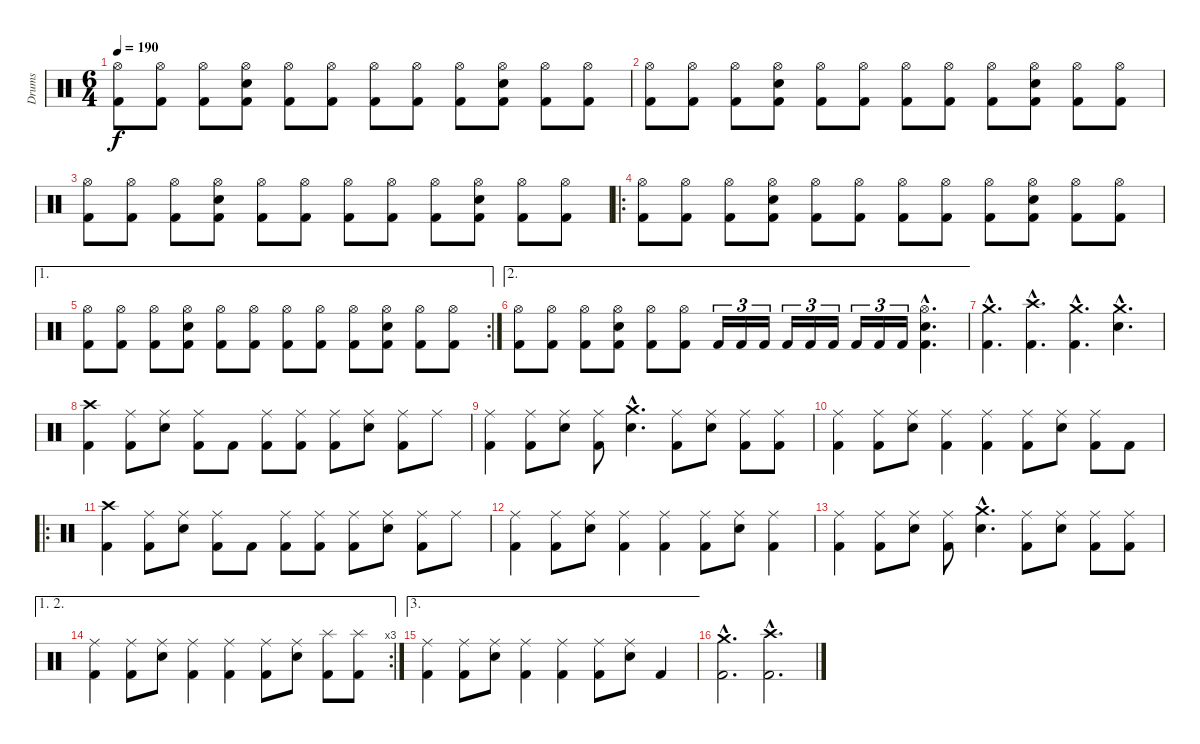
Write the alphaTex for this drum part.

\track ("Drums" "Drums") {instrument percussion}
\staff {score}
\articulation defaults
\ts (6 4)
\tempo 190
\clef neutral
\ks c
("Hi-Hat (open)" "Kick (hit) 2").8{dy f} ("Hi-Hat (open)" "Kick (hit) 2").8 ("Hi-Hat (open)" "Kick (hit) 2").8 ("Hi-Hat (open)" "Electric Snare (hit)" "Kick (hit) 2").8 ("Hi-Hat (open)" "Kick (hit) 2").8 ("Hi-Hat (open)" "Kick (hit) 2").8 ("Hi-Hat (open)" "Kick (hit) 2").8 ("Hi-Hat (open)" "Kick (hit) 2").8 ("Hi-Hat (open)" "Kick (hit) 2").8 ("Hi-Hat (open)" "Electric Snare (hit)" "Kick (hit) 2").8 ("Hi-Hat (open)" "Kick (hit) 2").8 ("Hi-Hat (open)" "Kick (hit) 2").8 |
("Hi-Hat (open)" "Kick (hit) 2").8 ("Hi-Hat (open)" "Kick (hit) 2").8 ("Hi-Hat (open)" "Kick (hit) 2").8 ("Hi-Hat (open)" "Electric Snare (hit)" "Kick (hit) 2").8 ("Hi-Hat (open)" "Kick (hit) 2").8 ("Hi-Hat (open)" "Kick (hit) 2").8 ("Hi-Hat (open)" "Kick (hit) 2").8 ("Hi-Hat (open)" "Kick (hit) 2").8 ("Hi-Hat (open)" "Kick (hit) 2").8 ("Hi-Hat (open)" "Electric Snare (hit)" "Kick (hit) 2").8 ("Hi-Hat (open)" "Kick (hit) 2").8 ("Hi-Hat (open)" "Kick (hit) 2").8 |
("Hi-Hat (open)" "Kick (hit) 2").8 ("Hi-Hat (open)" "Kick (hit) 2").8 ("Hi-Hat (open)" "Kick (hit) 2").8 ("Hi-Hat (open)" "Electric Snare (hit)" "Kick (hit) 2").8 ("Hi-Hat (open)" "Kick (hit) 2").8 ("Hi-Hat (open)" "Kick (hit) 2").8 ("Hi-Hat (open)" "Kick (hit) 2").8 ("Hi-Hat (open)" "Kick (hit) 2").8 ("Hi-Hat (open)" "Kick (hit) 2").8 ("Hi-Hat (open)" "Electric Snare (hit)" "Kick (hit) 2").8 ("Hi-Hat (open)" "Kick (hit) 2").8 ("Hi-Hat (open)" "Kick (hit) 2").8 |
\ro
("Hi-Hat (open)" "Kick (hit) 2").8 ("Hi-Hat (open)" "Kick (hit) 2").8 ("Hi-Hat (open)" "Kick (hit) 2").8 ("Hi-Hat (open)" "Electric Snare (hit)" "Kick (hit) 2").8 ("Hi-Hat (open)" "Kick (hit) 2").8 ("Hi-Hat (open)" "Kick (hit) 2").8 ("Hi-Hat (open)" "Kick (hit) 2").8 ("Hi-Hat (open)" "Kick (hit) 2").8 ("Hi-Hat (open)" "Kick (hit) 2").8 ("Hi-Hat (open)" "Electric Snare (hit)" "Kick (hit) 2").8 ("Hi-Hat (open)" "Kick (hit) 2").8 ("Hi-Hat (open)" "Kick (hit) 2").8 |
\ae 1
\rc 2
("Hi-Hat (open)" "Kick (hit) 2").8 ("Hi-Hat (open)" "Kick (hit) 2").8 ("Hi-Hat (open)" "Kick (hit) 2").8 ("Hi-Hat (open)" "Electric Snare (hit)" "Kick (hit) 2").8 ("Hi-Hat (open)" "Kick (hit) 2").8 ("Hi-Hat (open)" "Kick (hit) 2").8 ("Hi-Hat (open)" "Kick (hit) 2").8 ("Hi-Hat (open)" "Kick (hit) 2").8 ("Hi-Hat (open)" "Kick (hit) 2").8 ("Hi-Hat (open)" "Electric Snare (hit)" "Kick (hit) 2").8 ("Hi-Hat (open)" "Kick (hit) 2").8 ("Hi-Hat (open)" "Kick (hit) 2").8 |
\ae 2
("Hi-Hat (open)" "Kick (hit) 2").8 ("Hi-Hat (open)" "Kick (hit) 2").8 ("Hi-Hat (open)" "Kick (hit) 2").8 ("Hi-Hat (open)" "Electric Snare (hit)" "Kick (hit) 2").8 ("Hi-Hat (open)" "Kick (hit) 2").8 ("Hi-Hat (open)" "Kick (hit) 2").8 "Kick (hit) 2".16{tu (3 2)} "Kick (hit) 2".16{tu (3 2)} "Kick (hit) 2".16{tu (3 2)} "Kick (hit) 2".16{tu (3 2)} "Kick (hit) 2".16{tu (3 2)} "Kick (hit) 2".16{tu (3 2)} "Kick (hit) 2".16{tu (3 2)} "Kick (hit) 2".16{tu (3 2)} "Kick (hit) 2".16{tu (3 2)} ("Hi-Hat (open)"{hac} "Electric Snare (hit)"{hac} "Kick (hit) 2"{hac}).4{d} |
("Crash medium (hit)"{hac} "Kick (hit) 2"{hac}).4{d} ("Crash high (hit)"{hac} "Kick (hit) 2"{hac}).4{d} ("Crash medium (hit)"{hac} "Kick (hit) 2"{hac}).4{d} ("Crash medium (hit)"{hac} "Electric Snare (hit)"{hac}).4{d} |
("Crash high (hit)" "Kick (hit) 2").4 ("Ride (middle)" "Kick (hit) 2").8 ("Ride (middle)" "Electric Snare (hit)").8 ("Ride (middle)" "Kick (hit) 2").8 "Kick (hit) 2".8 ("Ride (middle)" "Kick (hit) 2").8 ("Ride (middle)" "Kick (hit) 2").8 ("Ride (middle)" "Kick (hit) 2").8 ("Ride (middle)" "Electric Snare (hit)").8 ("Ride (middle)" "Kick (hit) 2").8 "Ride (middle)".8 |
("Ride (middle)" "Kick (hit) 2").4 ("Ride (middle)" "Kick (hit) 2").8 ("Ride (middle)" "Electric Snare (hit)").8 ("Ride (middle)" "Kick (hit) 2").8 ("Crash medium (hit)"{hac} "Electric Snare (hit)"{hac}).4{d} ("Ride (middle)" "Kick (hit) 2").8 ("Ride (middle)" "Electric Snare (hit)").8 ("Ride (middle)" "Kick (hit) 2").8 ("Ride (middle)" "Kick (hit) 2").8 |
("Ride (middle)" "Kick (hit) 2").4 ("Ride (middle)" "Kick (hit) 2").8 ("Ride (middle)" "Electric Snare (hit)").8 ("Ride (middle)" "Kick (hit) 2").4 ("Ride (middle)" "Kick (hit) 2").4 ("Ride (middle)" "Kick (hit) 2").8 ("Ride (middle)" "Electric Snare (hit)").8 ("Ride (middle)" "Kick (hit) 2").8 "Kick (hit) 2".8 |
\ro
("Crash high (hit)" "Kick (hit) 2").4 ("Ride (middle)" "Kick (hit) 2").8 ("Ride (middle)" "Electric Snare (hit)").8 ("Ride (middle)" "Kick (hit) 2").8 "Kick (hit) 2".8 ("Ride (middle)" "Kick (hit) 2").8 ("Ride (middle)" "Kick (hit) 2").8 ("Ride (middle)" "Kick (hit) 2").8 ("Ride (middle)" "Electric Snare (hit)").8 ("Ride (middle)" "Kick (hit) 2").8 "Ride (middle)".8 |
("Ride (middle)" "Kick (hit) 2").4 ("Ride (middle)" "Kick (hit) 2").8 ("Ride (middle)" "Electric Snare (hit)").8 ("Ride (middle)" "Kick (hit) 2").4 ("Ride (middle)" "Kick (hit) 2").4 ("Ride (middle)" "Kick (hit) 2").8 ("Ride (middle)" "Electric Snare (hit)").8 ("Ride (middle)" "Kick (hit) 2").4 |
("Ride (middle)" "Kick (hit) 2").4 ("Ride (middle)" "Kick (hit) 2").8 ("Ride (middle)" "Electric Snare (hit)").8 ("Ride (middle)" "Kick (hit) 2").8 ("Crash medium (hit)"{hac} "Electric Snare (hit)"{hac}).4{d} ("Ride (middle)" "Kick (hit) 2").8 ("Ride (middle)" "Electric Snare (hit)").8 ("Ride (middle)" "Kick (hit) 2").8 ("Ride (middle)" "Kick (hit) 2").8 |
\ae (1 2)
\rc 3
("Ride (middle)" "Kick (hit) 2").4 ("Ride (middle)" "Kick (hit) 2").8 ("Ride (middle)" "Electric Snare (hit)").8 ("Ride (middle)" "Kick (hit) 2").4 ("Ride (middle)" "Kick (hit) 2").4 ("Ride (middle)" "Kick (hit) 2").8 ("Ride (middle)" "Electric Snare (hit)").8 ("Splash (hit)" "Kick (hit) 2").8 ("Splash (hit)" "Kick (hit) 2").8 |
\ae 3
("Ride (middle)" "Kick (hit) 2").4 ("Ride (middle)" "Kick (hit) 2").8 ("Ride (middle)" "Electric Snare (hit)").8 ("Ride (middle)" "Kick (hit) 2").4 ("Ride (middle)" "Kick (hit) 2").4 ("Ride (middle)" "Kick (hit) 2").8 ("Ride (middle)" "Electric Snare (hit)").8 "Kick (hit) 2".4 |
("Crash medium (hit)"{hac} "Kick (hit) 2"{hac}).2{d} ("Crash high (hit)"{hac} "Kick (hit) 2"{hac}).2{d}
